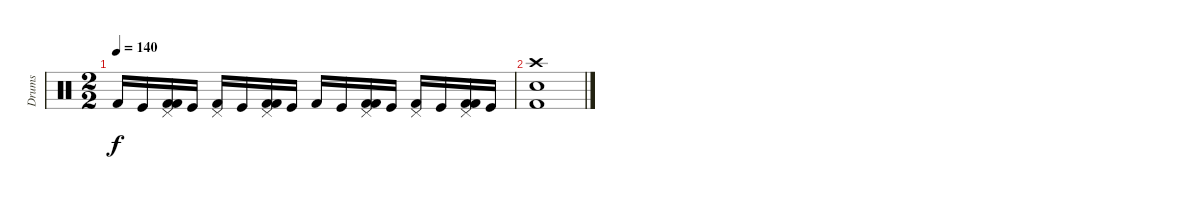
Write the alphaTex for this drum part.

\track ("Drums" "Drums") {instrument percussion}
\staff {score}
\articulation defaults
\ts (2 2)
\tempo 140
\clef neutral
\ks c "Kick (hit) 2".16{dy f} "Kick (hit)".16
("Kick (hit) 2" "Pedal Hi-Hat (hit)" "Kick (hit) 2").16 "Kick (hit)".16 ("Kick (hit) 2" "Pedal Hi-Hat (hit)").16 "Kick (hit)".16 ("Kick (hit) 2" "Pedal Hi-Hat (hit)" "Kick (hit) 2").16 "Kick (hit)".16 "Kick (hit) 2".16 "Kick (hit)".16 ("Kick (hit) 2" "Pedal Hi-Hat (hit)" "Kick (hit) 2").16 "Kick (hit)".16 ("Kick (hit) 2" "Pedal Hi-Hat (hit)").16 "Kick (hit)".16 ("Kick (hit) 2" "Pedal Hi-Hat (hit)" "Kick (hit) 2").16 "Kick (hit)".16 |
("Kick (hit) 2" "Snare (hit) 2" "Crash high (hit)").1
